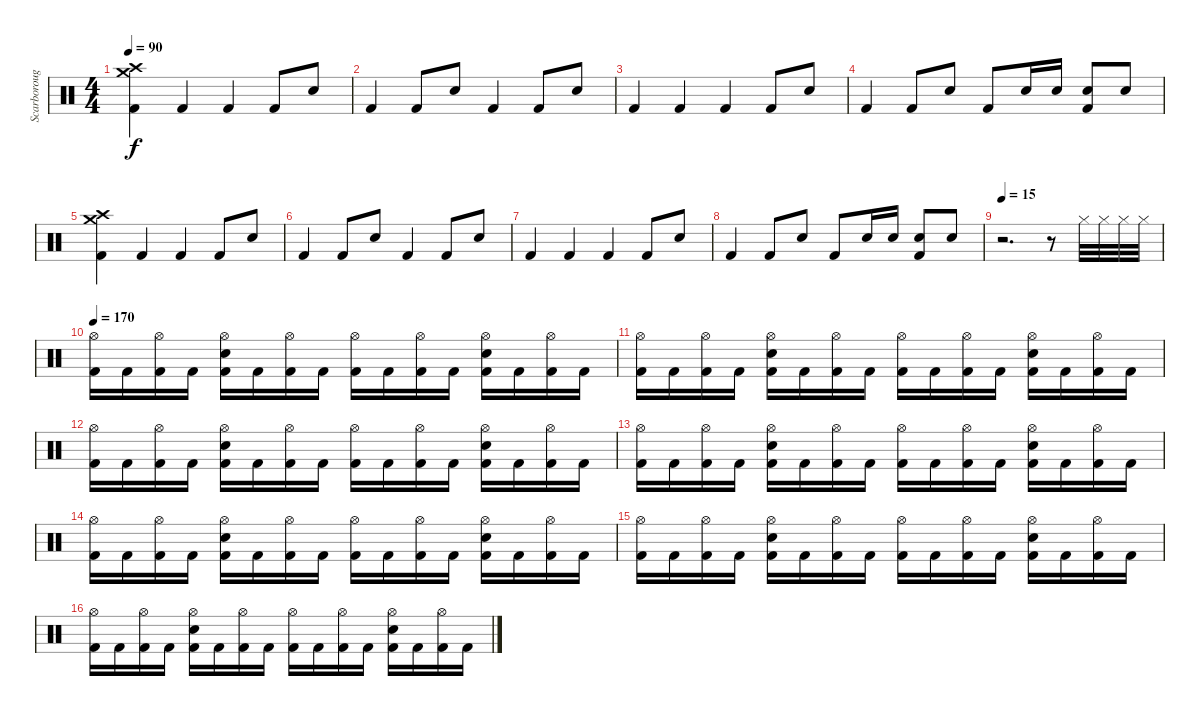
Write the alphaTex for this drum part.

\track ("Scarborough" "Scarboroug") {instrument percussion}
\staff {score}
\articulation defaults
\ts (4 4)
\tempo 90
\clef neutral
\ks c
("Crash medium (hit)" "Kick (hit) 2" "Crash high (hit)").4{dy f} "Kick (hit) 2".4 "Kick (hit) 2".4 "Kick (hit) 2".8 "Snare (hit) 2".8 |
"Kick (hit) 2".4 "Kick (hit) 2".8 "Snare (hit) 2".8 "Kick (hit) 2".4 "Kick (hit) 2".8 "Snare (hit) 2".8 |
"Kick (hit) 2".4 "Kick (hit) 2".4 "Kick (hit) 2".4 "Kick (hit) 2".8 "Snare (hit) 2".8 |
"Kick (hit) 2".4 "Kick (hit) 2".8 "Snare (hit) 2".8 "Kick (hit) 2".8 "Snare (hit) 2".16 "Snare (hit) 2".16 ("Kick (hit) 2" "Snare (hit) 2").8 "Snare (hit) 2".8 |
("Crash medium (hit)" "Kick (hit) 2" "Crash high (hit)").4 "Kick (hit) 2".4 "Kick (hit) 2".4 "Kick (hit) 2".8 "Snare (hit) 2".8 |
"Kick (hit) 2".4 "Kick (hit) 2".8 "Snare (hit) 2".8 "Kick (hit) 2".4 "Kick (hit) 2".8 "Snare (hit) 2".8 |
"Kick (hit) 2".4 "Kick (hit) 2".4 "Kick (hit) 2".4 "Kick (hit) 2".8 "Snare (hit) 2".8 |
"Kick (hit) 2".4 "Kick (hit) 2".8 "Snare (hit) 2".8 "Kick (hit) 2".8 "Snare (hit) 2".16 "Snare (hit) 2".16 ("Kick (hit) 2" "Snare (hit) 2").8 "Snare (hit) 2".8 |
\tempo 15
r.2{d} r.8 "Hi-Hat (closed)".32 "Hi-Hat (closed)".32 "Hi-Hat (closed)".32 "Hi-Hat (closed)".32 |
\tempo 170
("Hi-Hat (open)" "Kick (hit) 2").16 "Kick (hit) 2".16 ("Hi-Hat (open)" "Kick (hit) 2").16 "Kick (hit) 2".16 ("Hi-Hat (open)" "Kick (hit) 2" "Snare (hit) 2").16 "Kick (hit) 2".16 ("Hi-Hat (open)" "Kick (hit) 2").16 "Kick (hit) 2".16 ("Hi-Hat (open)" "Kick (hit) 2").16 "Kick (hit) 2".16 ("Hi-Hat (open)" "Kick (hit) 2").16 "Kick (hit) 2".16 ("Hi-Hat (open)" "Kick (hit) 2" "Snare (hit) 2").16 "Kick (hit) 2".16 ("Hi-Hat (open)" "Kick (hit) 2").16 "Kick (hit) 2".16 |
("Hi-Hat (open)" "Kick (hit) 2").16 "Kick (hit) 2".16 ("Hi-Hat (open)" "Kick (hit) 2").16 "Kick (hit) 2".16 ("Hi-Hat (open)" "Kick (hit) 2" "Snare (hit) 2").16 "Kick (hit) 2".16 ("Hi-Hat (open)" "Kick (hit) 2").16 "Kick (hit) 2".16 ("Hi-Hat (open)" "Kick (hit) 2").16 "Kick (hit) 2".16 ("Hi-Hat (open)" "Kick (hit) 2").16 "Kick (hit) 2".16 ("Hi-Hat (open)" "Kick (hit) 2" "Snare (hit) 2").16 "Kick (hit) 2".16 ("Hi-Hat (open)" "Kick (hit) 2").16 "Kick (hit) 2".16 |
("Hi-Hat (open)" "Kick (hit) 2").16 "Kick (hit) 2".16 ("Hi-Hat (open)" "Kick (hit) 2").16 "Kick (hit) 2".16 ("Hi-Hat (open)" "Kick (hit) 2" "Snare (hit) 2").16 "Kick (hit) 2".16 ("Hi-Hat (open)" "Kick (hit) 2").16 "Kick (hit) 2".16 ("Hi-Hat (open)" "Kick (hit) 2").16 "Kick (hit) 2".16 ("Hi-Hat (open)" "Kick (hit) 2").16 "Kick (hit) 2".16 ("Hi-Hat (open)" "Kick (hit) 2" "Snare (hit) 2").16 "Kick (hit) 2".16 ("Hi-Hat (open)" "Kick (hit) 2").16 "Kick (hit) 2".16 |
("Hi-Hat (open)" "Kick (hit) 2").16 "Kick (hit) 2".16 ("Hi-Hat (open)" "Kick (hit) 2").16 "Kick (hit) 2".16 ("Hi-Hat (open)" "Kick (hit) 2" "Snare (hit) 2").16 "Kick (hit) 2".16 ("Hi-Hat (open)" "Kick (hit) 2").16 "Kick (hit) 2".16 ("Hi-Hat (open)" "Kick (hit) 2").16 "Kick (hit) 2".16 ("Hi-Hat (open)" "Kick (hit) 2").16 "Kick (hit) 2".16 ("Hi-Hat (open)" "Kick (hit) 2" "Snare (hit) 2").16 "Kick (hit) 2".16 ("Hi-Hat (open)" "Kick (hit) 2").16 "Kick (hit) 2".16 |
("Hi-Hat (open)" "Kick (hit) 2").16 "Kick (hit) 2".16 ("Hi-Hat (open)" "Kick (hit) 2").16 "Kick (hit) 2".16 ("Hi-Hat (open)" "Kick (hit) 2" "Snare (hit) 2").16 "Kick (hit) 2".16 ("Hi-Hat (open)" "Kick (hit) 2").16 "Kick (hit) 2".16 ("Hi-Hat (open)" "Kick (hit) 2").16 "Kick (hit) 2".16 ("Hi-Hat (open)" "Kick (hit) 2").16 "Kick (hit) 2".16 ("Hi-Hat (open)" "Kick (hit) 2" "Snare (hit) 2").16 "Kick (hit) 2".16 ("Hi-Hat (open)" "Kick (hit) 2").16 "Kick (hit) 2".16 |
("Hi-Hat (open)" "Kick (hit) 2").16 "Kick (hit) 2".16 ("Hi-Hat (open)" "Kick (hit) 2").16 "Kick (hit) 2".16 ("Hi-Hat (open)" "Kick (hit) 2" "Snare (hit) 2").16 "Kick (hit) 2".16 ("Hi-Hat (open)" "Kick (hit) 2").16 "Kick (hit) 2".16 ("Hi-Hat (open)" "Kick (hit) 2").16 "Kick (hit) 2".16 ("Hi-Hat (open)" "Kick (hit) 2").16 "Kick (hit) 2".16 ("Hi-Hat (open)" "Kick (hit) 2" "Snare (hit) 2").16 "Kick (hit) 2".16 ("Hi-Hat (open)" "Kick (hit) 2").16 "Kick (hit) 2".16 |
("Hi-Hat (open)" "Kick (hit) 2").16 "Kick (hit) 2".16 ("Hi-Hat (open)" "Kick (hit) 2").16 "Kick (hit) 2".16 ("Hi-Hat (open)" "Kick (hit) 2" "Snare (hit) 2").16 "Kick (hit) 2".16 ("Hi-Hat (open)" "Kick (hit) 2").16 "Kick (hit) 2".16 ("Hi-Hat (open)" "Kick (hit) 2").16 "Kick (hit) 2".16 ("Hi-Hat (open)" "Kick (hit) 2").16 "Kick (hit) 2".16 ("Hi-Hat (open)" "Kick (hit) 2" "Snare (hit) 2").16 "Kick (hit) 2".16 ("Hi-Hat (open)" "Kick (hit) 2").16 "Kick (hit) 2".16
